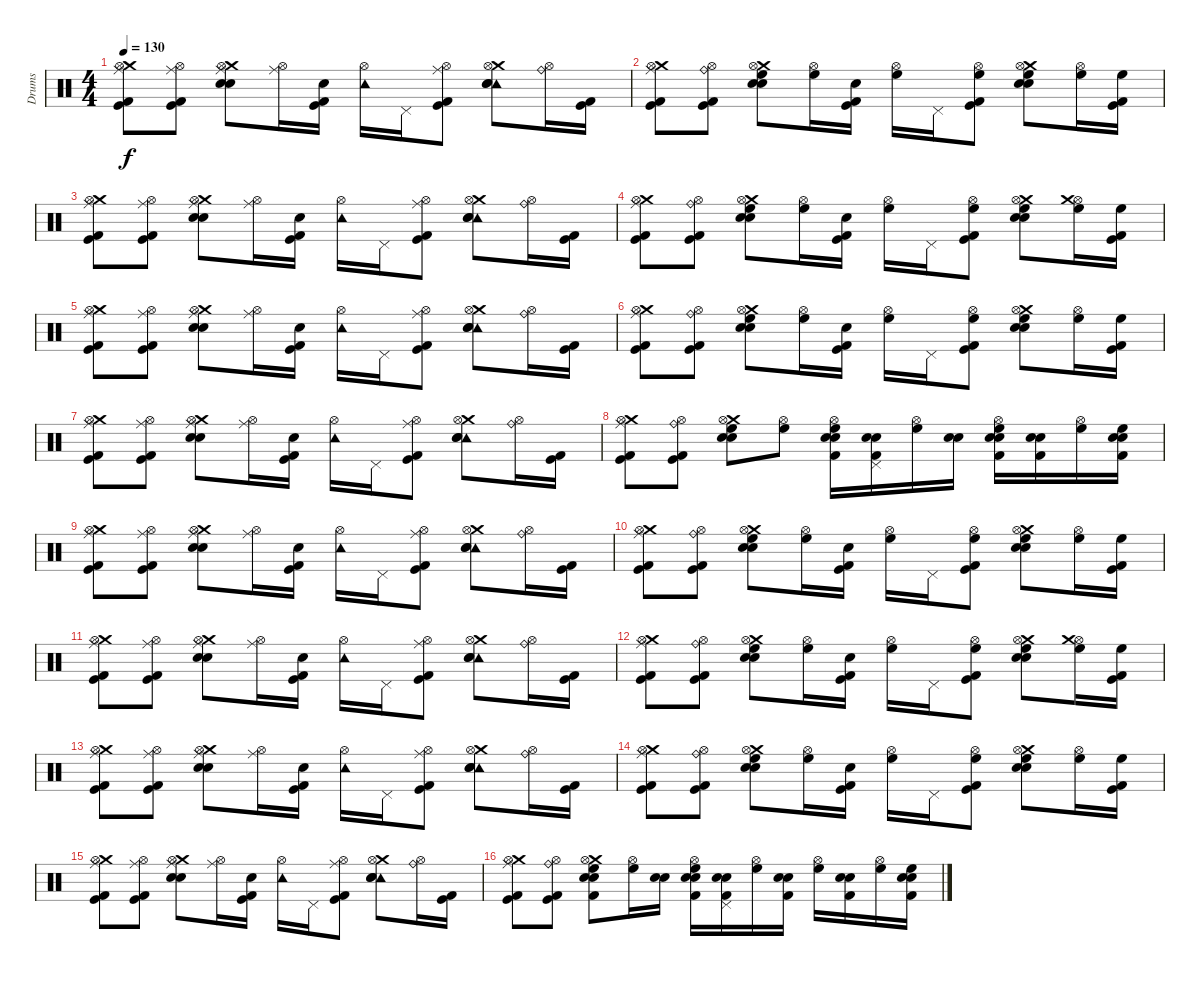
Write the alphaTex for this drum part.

\track ("Drums" "Drums") {instrument percussion}
\staff {score}
\articulation defaults
\ts (4 4)
\tempo 130
\clef neutral
\ks c
("Ride (middle)" "Kick (hit) 2" "Kick (hit)" "Crash medium (hit)" "Hi-Hat (open)").8{dy f} ("Ride (middle)" "Kick (hit) 2" "Kick (hit)" "Hi-Hat (open)").8 ("Ride (middle)" "Snare (hit) 2" "Electric Snare (hit)" "Crash medium (hit)" "Hi-Hat (open)").8 ("Ride (middle)" "Hi-Hat (open)").16 ("Kick (hit) 2" "Kick (hit)" "Electric Snare (hit)").16 ("Tambourine (hit)" "Hi-Hat (open)").16 "Pedal Hi-Hat (hit)".16 ("Ride (middle)" "Kick (hit) 2" "Kick (hit)" "Hi-Hat (open)").8 ("Tambourine (hit)" "Snare (hit) 2" "Electric Snare (hit)" "Crash medium (hit)" "Hi-Hat (open)").8 ("Ride (bell)" "Hi-Hat (open)").16 ("Kick (hit) 2" "Kick (hit)").16 |
("Ride (middle)" "Kick (hit) 2" "Kick (hit)" "Crash medium (hit)" "Hi-Hat (open)").8 ("Ride (bell)" "Kick (hit) 2" "Kick (hit)" "Hi-Hat (open)").8 ("High Floor Tom (hit)" "Snare (hit) 2" "Electric Snare (hit)" "Crash medium (hit)" "Hi-Hat (open)").8 ("High Floor Tom (hit)" "Hi-Hat (open)").16 ("Kick (hit) 2" "Kick (hit)" "Electric Snare (hit)").16 ("High Floor Tom (hit)" "Hi-Hat (open)").16 "Pedal Hi-Hat (hit)".16 ("High Floor Tom (hit)" "Kick (hit) 2" "Kick (hit)" "Hi-Hat (open)").8 ("High Floor Tom (hit)" "Snare (hit) 2" "Electric Snare (hit)" "Crash medium (hit)" "Hi-Hat (open)").8 ("High Floor Tom (hit)" "Hi-Hat (open)").16 ("High Floor Tom (hit)" "Kick (hit) 2" "Kick (hit)").16 |
("Ride (middle)" "Kick (hit) 2" "Kick (hit)" "Crash medium (hit)" "Hi-Hat (open)").8 ("Ride (middle)" "Kick (hit) 2" "Kick (hit)" "Hi-Hat (open)").8 ("Ride (middle)" "Snare (hit) 2" "Electric Snare (hit)" "Crash medium (hit)" "Hi-Hat (open)").8 ("Ride (middle)" "Hi-Hat (open)").16 ("Kick (hit) 2" "Kick (hit)" "Electric Snare (hit)").16 ("Tambourine (hit)" "Hi-Hat (open)").16 "Pedal Hi-Hat (hit)".16 ("Ride (middle)" "Kick (hit) 2" "Kick (hit)" "Hi-Hat (open)").8 ("Tambourine (hit)" "Snare (hit) 2" "Electric Snare (hit)" "Crash medium (hit)" "Hi-Hat (open)").8 ("Ride (bell)" "Hi-Hat (open)").16 ("Kick (hit) 2" "Kick (hit)").16 |
("Ride (middle)" "Kick (hit) 2" "Kick (hit)" "Crash medium (hit)" "Hi-Hat (open)").8 ("Ride (bell)" "Kick (hit) 2" "Kick (hit)" "Hi-Hat (open)").8 ("High Floor Tom (hit)" "Snare (hit) 2" "Electric Snare (hit)" "Crash medium (hit)" "Hi-Hat (open)").8 ("High Floor Tom (hit)" "Hi-Hat (open)").16 ("Kick (hit) 2" "Kick (hit)" "Electric Snare (hit)").16 ("High Floor Tom (hit)" "Hi-Hat (open)").16 "Pedal Hi-Hat (hit)".16 ("High Floor Tom (hit)" "Kick (hit) 2" "Kick (hit)" "Hi-Hat (open)").8 ("High Floor Tom (hit)" "Snare (hit) 2" "Electric Snare (hit)" "Crash medium (hit)" "Hi-Hat (open)").8 ("High Floor Tom (hit)" "Hi-Hat (open)" "Crash medium (hit)").16 ("High Floor Tom (hit)" "Kick (hit) 2" "Kick (hit)").16 |
("Ride (middle)" "Kick (hit) 2" "Kick (hit)" "Crash medium (hit)" "Hi-Hat (open)").8 ("Ride (middle)" "Kick (hit) 2" "Kick (hit)" "Hi-Hat (open)").8 ("Ride (middle)" "Snare (hit) 2" "Electric Snare (hit)" "Crash medium (hit)" "Hi-Hat (open)").8 ("Ride (middle)" "Hi-Hat (open)").16 ("Kick (hit) 2" "Kick (hit)" "Electric Snare (hit)").16 ("Tambourine (hit)" "Hi-Hat (open)").16 "Pedal Hi-Hat (hit)".16 ("Ride (middle)" "Kick (hit) 2" "Kick (hit)" "Hi-Hat (open)").8 ("Tambourine (hit)" "Snare (hit) 2" "Electric Snare (hit)" "Crash medium (hit)" "Hi-Hat (open)").8 ("Ride (bell)" "Hi-Hat (open)").16 ("Kick (hit) 2" "Kick (hit)").16 |
("Ride (middle)" "Kick (hit) 2" "Kick (hit)" "Crash medium (hit)" "Hi-Hat (open)").8 ("Ride (bell)" "Kick (hit) 2" "Kick (hit)" "Hi-Hat (open)").8 ("High Floor Tom (hit)" "Snare (hit) 2" "Electric Snare (hit)" "Crash medium (hit)" "Hi-Hat (open)").8 ("High Floor Tom (hit)" "Hi-Hat (open)").16 ("Kick (hit) 2" "Kick (hit)" "Electric Snare (hit)").16 ("High Floor Tom (hit)" "Hi-Hat (open)").16 "Pedal Hi-Hat (hit)".16 ("High Floor Tom (hit)" "Kick (hit) 2" "Kick (hit)" "Hi-Hat (open)").8 ("High Floor Tom (hit)" "Snare (hit) 2" "Electric Snare (hit)" "Crash medium (hit)" "Hi-Hat (open)").8 ("High Floor Tom (hit)" "Hi-Hat (open)").16 ("High Floor Tom (hit)" "Kick (hit) 2" "Kick (hit)").16 |
("Ride (middle)" "Kick (hit) 2" "Kick (hit)" "Crash medium (hit)" "Hi-Hat (open)").8 ("Ride (middle)" "Kick (hit) 2" "Kick (hit)" "Hi-Hat (open)").8 ("Ride (middle)" "Snare (hit) 2" "Electric Snare (hit)" "Crash medium (hit)" "Hi-Hat (open)").8 ("Ride (middle)" "Hi-Hat (open)").16 ("Kick (hit) 2" "Kick (hit)" "Electric Snare (hit)").16 ("Tambourine (hit)" "Hi-Hat (open)").16 "Pedal Hi-Hat (hit)".16 ("Ride (middle)" "Kick (hit) 2" "Kick (hit)" "Hi-Hat (open)").8 ("Tambourine (hit)" "Snare (hit) 2" "Electric Snare (hit)" "Crash medium (hit)" "Hi-Hat (open)").8 ("Ride (bell)" "Hi-Hat (open)").16 ("Kick (hit) 2" "Kick (hit)").16 |
("Ride (middle)" "Kick (hit) 2" "Kick (hit)" "Crash medium (hit)" "Hi-Hat (open)").8 ("Ride (bell)" "Kick (hit) 2" "Kick (hit)" "Hi-Hat (open)").8 ("High Floor Tom (hit)" "Snare (hit) 2" "Electric Snare (hit)" "Crash medium (hit)" "Hi-Hat (open)").8 ("High Floor Tom (hit)" "Hi-Hat (open)").8 ("High Floor Tom (hit)" "Hi-Hat (open)" "Electric Snare (hit)" "Snare (hit) 2" "Kick (hit) 2").16 ("Electric Snare (hit)" "Snare (hit) 2" "Kick (hit) 2" "Pedal Hi-Hat (hit)").16 ("High Floor Tom (hit)" "Hi-Hat (open)").16 ("Electric Snare (hit)" "Electric Snare (hit)").16 ("High Floor Tom (hit)" "Hi-Hat (open)" "Snare (hit) 2" "Electric Snare (hit)" "Kick (hit) 2").16 ("Electric Snare (hit)" "Snare (hit) 2" "Kick (hit) 2").16 ("High Floor Tom (hit)" "Hi-Hat (open)").16 ("High Floor Tom (hit)" "Electric Snare (hit)" "Snare (hit) 2" "Kick (hit) 2").16 |
("Ride (middle)" "Kick (hit) 2" "Kick (hit)" "Crash medium (hit)" "Hi-Hat (open)").8 ("Ride (middle)" "Kick (hit) 2" "Kick (hit)" "Hi-Hat (open)").8 ("Ride (middle)" "Snare (hit) 2" "Electric Snare (hit)" "Crash medium (hit)" "Hi-Hat (open)").8 ("Ride (middle)" "Hi-Hat (open)").16 ("Kick (hit) 2" "Kick (hit)" "Electric Snare (hit)").16 ("Tambourine (hit)" "Hi-Hat (open)").16 "Pedal Hi-Hat (hit)".16 ("Ride (middle)" "Kick (hit) 2" "Kick (hit)" "Hi-Hat (open)").8 ("Tambourine (hit)" "Snare (hit) 2" "Electric Snare (hit)" "Crash medium (hit)" "Hi-Hat (open)").8 ("Ride (bell)" "Hi-Hat (open)").16 ("Kick (hit) 2" "Kick (hit)").16 |
("Ride (middle)" "Kick (hit) 2" "Kick (hit)" "Crash medium (hit)" "Hi-Hat (open)").8 ("Ride (bell)" "Kick (hit) 2" "Kick (hit)" "Hi-Hat (open)").8 ("High Floor Tom (hit)" "Snare (hit) 2" "Electric Snare (hit)" "Crash medium (hit)" "Hi-Hat (open)").8 ("High Floor Tom (hit)" "Hi-Hat (open)").16 ("Kick (hit) 2" "Kick (hit)" "Electric Snare (hit)").16 ("High Floor Tom (hit)" "Hi-Hat (open)").16 "Pedal Hi-Hat (hit)".16 ("High Floor Tom (hit)" "Kick (hit) 2" "Kick (hit)" "Hi-Hat (open)").8 ("High Floor Tom (hit)" "Snare (hit) 2" "Electric Snare (hit)" "Crash medium (hit)" "Hi-Hat (open)").8 ("High Floor Tom (hit)" "Hi-Hat (open)").16 ("High Floor Tom (hit)" "Kick (hit) 2" "Kick (hit)").16 |
("Ride (middle)" "Kick (hit) 2" "Kick (hit)" "Crash medium (hit)" "Hi-Hat (open)").8 ("Ride (middle)" "Kick (hit) 2" "Kick (hit)" "Hi-Hat (open)").8 ("Ride (middle)" "Snare (hit) 2" "Electric Snare (hit)" "Crash medium (hit)" "Hi-Hat (open)").8 ("Ride (middle)" "Hi-Hat (open)").16 ("Kick (hit) 2" "Kick (hit)" "Electric Snare (hit)").16 ("Tambourine (hit)" "Hi-Hat (open)").16 "Pedal Hi-Hat (hit)".16 ("Ride (middle)" "Kick (hit) 2" "Kick (hit)" "Hi-Hat (open)").8 ("Tambourine (hit)" "Snare (hit) 2" "Electric Snare (hit)" "Crash medium (hit)" "Hi-Hat (open)").8 ("Ride (bell)" "Hi-Hat (open)").16 ("Kick (hit) 2" "Kick (hit)").16 |
("Ride (middle)" "Kick (hit) 2" "Kick (hit)" "Crash medium (hit)" "Hi-Hat (open)").8 ("Ride (bell)" "Kick (hit) 2" "Kick (hit)" "Hi-Hat (open)").8 ("High Floor Tom (hit)" "Snare (hit) 2" "Electric Snare (hit)" "Crash medium (hit)" "Hi-Hat (open)").8 ("High Floor Tom (hit)" "Hi-Hat (open)").16 ("Kick (hit) 2" "Kick (hit)" "Electric Snare (hit)").16 ("High Floor Tom (hit)" "Hi-Hat (open)").16 "Pedal Hi-Hat (hit)".16 ("High Floor Tom (hit)" "Kick (hit) 2" "Kick (hit)" "Hi-Hat (open)").8 ("High Floor Tom (hit)" "Snare (hit) 2" "Electric Snare (hit)" "Crash medium (hit)" "Hi-Hat (open)").8 ("High Floor Tom (hit)" "Hi-Hat (open)" "Crash medium (hit)").16 ("High Floor Tom (hit)" "Kick (hit) 2" "Kick (hit)").16 |
("Ride (middle)" "Kick (hit) 2" "Kick (hit)" "Crash medium (hit)" "Hi-Hat (open)").8 ("Ride (middle)" "Kick (hit) 2" "Kick (hit)" "Hi-Hat (open)").8 ("Ride (middle)" "Snare (hit) 2" "Electric Snare (hit)" "Crash medium (hit)" "Hi-Hat (open)").8 ("Ride (middle)" "Hi-Hat (open)").16 ("Kick (hit) 2" "Kick (hit)" "Electric Snare (hit)").16 ("Tambourine (hit)" "Hi-Hat (open)").16 "Pedal Hi-Hat (hit)".16 ("Ride (middle)" "Kick (hit) 2" "Kick (hit)" "Hi-Hat (open)").8 ("Tambourine (hit)" "Snare (hit) 2" "Electric Snare (hit)" "Crash medium (hit)" "Hi-Hat (open)").8 ("Ride (bell)" "Hi-Hat (open)").16 ("Kick (hit) 2" "Kick (hit)").16 |
("Ride (middle)" "Kick (hit) 2" "Kick (hit)" "Crash medium (hit)" "Hi-Hat (open)").8 ("Ride (bell)" "Kick (hit) 2" "Kick (hit)" "Hi-Hat (open)").8 ("High Floor Tom (hit)" "Snare (hit) 2" "Electric Snare (hit)" "Crash medium (hit)" "Hi-Hat (open)").8 ("High Floor Tom (hit)" "Hi-Hat (open)").16 ("Kick (hit) 2" "Kick (hit)" "Electric Snare (hit)").16 ("High Floor Tom (hit)" "Hi-Hat (open)").16 "Pedal Hi-Hat (hit)".16 ("High Floor Tom (hit)" "Kick (hit) 2" "Kick (hit)" "Hi-Hat (open)").8 ("High Floor Tom (hit)" "Snare (hit) 2" "Electric Snare (hit)" "Crash medium (hit)" "Hi-Hat (open)").8 ("High Floor Tom (hit)" "Hi-Hat (open)").16 ("High Floor Tom (hit)" "Kick (hit) 2" "Kick (hit)").16 |
("Ride (middle)" "Kick (hit) 2" "Kick (hit)" "Crash medium (hit)" "Hi-Hat (open)").8 ("Ride (middle)" "Kick (hit) 2" "Kick (hit)" "Hi-Hat (open)").8 ("Ride (middle)" "Snare (hit) 2" "Electric Snare (hit)" "Crash medium (hit)" "Hi-Hat (open)").8 ("Ride (middle)" "Hi-Hat (open)").16 ("Kick (hit) 2" "Kick (hit)" "Electric Snare (hit)").16 ("Tambourine (hit)" "Hi-Hat (open)").16 "Pedal Hi-Hat (hit)".16 ("Ride (middle)" "Kick (hit) 2" "Kick (hit)" "Hi-Hat (open)").8 ("Tambourine (hit)" "Snare (hit) 2" "Electric Snare (hit)" "Crash medium (hit)" "Hi-Hat (open)").8 ("Ride (bell)" "Hi-Hat (open)").16 ("Kick (hit) 2" "Kick (hit)").16 |
("Ride (middle)" "Kick (hit) 2" "Kick (hit)" "Crash medium (hit)" "Hi-Hat (open)").8 ("Ride (bell)" "Kick (hit) 2" "Kick (hit)" "Hi-Hat (open)").8 ("High Floor Tom (hit)" "Crash medium (hit)" "Hi-Hat (open)" "Electric Snare (hit)" "Snare (hit) 2" "Kick (hit) 2").8 ("High Floor Tom (hit)" "Hi-Hat (open)").16 ("Electric Snare (hit)" "Electric Snare (hit)").16 ("High Floor Tom (hit)" "Hi-Hat (open)" "Snare (hit) 2" "Electric Snare (hit)" "Kick (hit) 2").16 ("Pedal Hi-Hat (hit)" "Electric Snare (hit)" "Snare (hit) 2" "Kick (hit) 2").16 ("High Floor Tom (hit)" "Hi-Hat (open)").16 ("Electric Snare (hit)" "Snare (hit) 2" "Kick (hit) 2").16 ("High Floor Tom (hit)" "Hi-Hat (open)").16 ("Electric Snare (hit)" "Snare (hit) 2" "Kick (hit) 2").16 ("High Floor Tom (hit)" "Hi-Hat (open)").16 ("High Floor Tom (hit)" "Electric Snare (hit)" "Snare (hit) 2" "Kick (hit) 2").16
